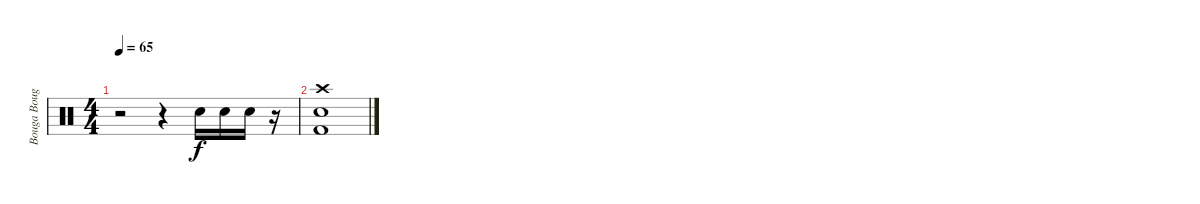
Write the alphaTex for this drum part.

\track ("Bouga Bouga" "Bouga Boug") {instrument percussion}
\staff {score}
\articulation defaults
\ts (4 4)
\tempo 65
\clef neutral
\ks c
r.2{dy f} r.4 "Snare (hit) 2".16 "Snare (hit) 2".16 "Snare (hit) 2".16 r.16 |
("Crash high (hit)" "Snare (hit) 2" "Kick (hit) 2").1
